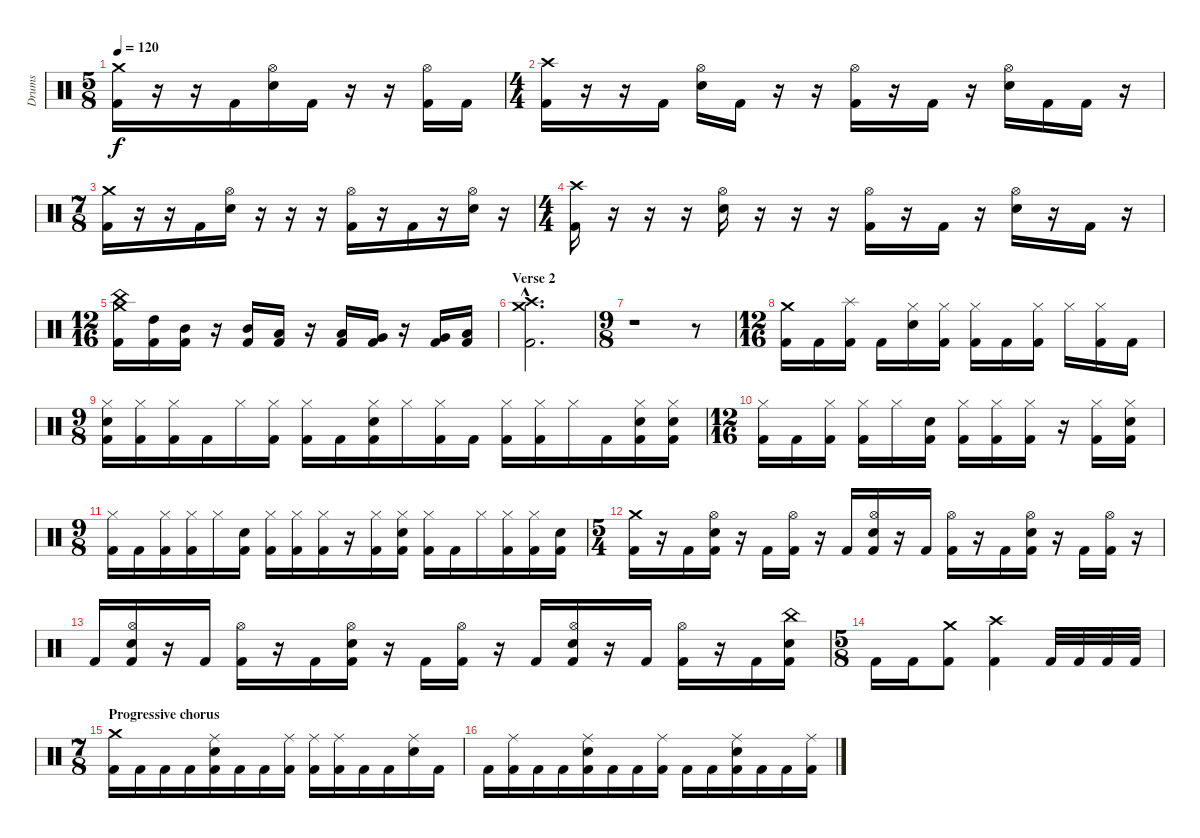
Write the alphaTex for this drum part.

\track ("Drums" "Drums") {instrument percussion}
\staff {score}
\articulation defaults
\ts (5 8)
\tempo 120
\clef neutral
\ks c
("Crash medium (hit)" "Kick (hit) 2").16{dy f} r.16 r.16 "Kick (hit) 2".16 ("Hi-Hat (open)" "Electric Snare (hit)").16 "Kick (hit) 2".16 r.16 r.16 ("Hi-Hat (open)" "Kick (hit) 2").16 "Kick (hit) 2".16 |
\ts (4 4)
("Crash high (hit)" "Kick (hit) 2").16 r.16 r.16 "Kick (hit) 2".16 ("Hi-Hat (open)" "Electric Snare (hit)").16 "Kick (hit) 2".16 r.16 r.16 ("Hi-Hat (open)" "Kick (hit) 2").16 r.16 "Kick (hit) 2".16 r.16 ("Hi-Hat (open)" "Electric Snare (hit)").16 "Kick (hit) 2".16 "Kick (hit) 2".16 r.16 |
\ts (7 8)
("Crash medium (hit)" "Kick (hit) 2").16 r.16 r.16 "Kick (hit) 2".16 ("Hi-Hat (open)" "Electric Snare (hit)").16 r.16 r.16 r.16 ("Hi-Hat (open)" "Kick (hit) 2").16 r.16 "Kick (hit) 2".16 r.16 ("Hi-Hat (open)" "Electric Snare (hit)").16 r.16 |
\ts (4 4)
("Crash high (hit)" "Kick (hit) 2").16 r.16 r.16 r.16 ("Hi-Hat (open)" "Electric Snare (hit)").16 r.16 r.16 r.16 ("Hi-Hat (open)" "Kick (hit) 2").16 r.16 "Kick (hit) 2".16 r.16 ("Hi-Hat (open)" "Electric Snare (hit)").16 r.16 "Kick (hit) 2".16 r.16 |
\ts (12 16)
("China (hit)" "Crash medium (hit)" "Kick (hit) 2").16 ("High Tom (hit)" "Kick (hit) 2").16 ("Mid Tom (hit)" "Kick (hit) 2").16 r.16 ("Mid Tom (hit)" "Kick (hit) 2").16 ("Low Tom (hit)" "Kick (hit) 2").16 r.16 ("Low Tom (hit)" "Kick (hit) 2").16 ("Very Low Tom (hit)" "Kick (hit) 2").16 r.16 ("Very Low Tom (hit)" "Kick (hit) 2").16 ("Low Floor Tom (hit)" "Kick (hit) 2").16 |
\section ("" "Verse 2")
("Crash high (hit)"{hac} "Crash medium (hit)"{hac} "Kick (hit) 2"{hac}).2{d} |
\ts (9 8)
r.1 r.8 |
\ts (12 16)
("Crash medium (hit)" "Kick (hit) 2").16 "Kick (hit) 2".16 ("Splash (hit)" "Kick (hit) 2").16 "Kick (hit) 2".16 ("Hi-Hat (closed)" "Electric Snare (hit)").16 ("Hi-Hat (closed)" "Kick (hit) 2").16 ("Hi-Hat (closed)" "Kick (hit) 2").16 "Kick (hit) 2".16 ("Hi-Hat (closed)" "Kick (hit) 2").16 "Hi-Hat (closed)".16 ("Hi-Hat (closed)" "Kick (hit) 2").16 "Kick (hit) 2".16 |
\ts (9 8)
("Hi-Hat (closed)" "Electric Snare (hit)" "Kick (hit) 2").16 ("Hi-Hat (closed)" "Kick (hit) 2").16 ("Hi-Hat (closed)" "Kick (hit) 2").16 "Kick (hit) 2".16 "Hi-Hat (closed)".16 ("Hi-Hat (closed)" "Kick (hit) 2").16 ("Hi-Hat (closed)" "Kick (hit) 2").16 "Kick (hit) 2".16 ("Hi-Hat (closed)" "Electric Snare (hit)" "Kick (hit) 2").16 "Hi-Hat (closed)".16 ("Hi-Hat (closed)" "Kick (hit) 2").16 "Kick (hit) 2".16 ("Hi-Hat (closed)" "Kick (hit) 2").16 ("Hi-Hat (closed)" "Kick (hit) 2").16 "Hi-Hat (closed)".16 "Kick (hit) 2".16 ("Hi-Hat (closed)" "Electric Snare (hit)" "Kick (hit) 2").16 ("Hi-Hat (closed)" "Electric Snare (hit)" "Kick (hit) 2").16 |
\ts (12 16)
("Hi-Hat (closed)" "Kick (hit) 2").16 "Kick (hit) 2".16 ("Hi-Hat (closed)" "Kick (hit) 2").16 ("Hi-Hat (closed)" "Kick (hit) 2").16 "Hi-Hat (closed)".16 ("Electric Snare (hit)" "Kick (hit) 2").16 ("Hi-Hat (closed)" "Kick (hit) 2").16 ("Hi-Hat (closed)" "Kick (hit) 2").16 ("Hi-Hat (closed)" "Kick (hit) 2").16 r.16 ("Hi-Hat (closed)" "Kick (hit) 2").16 ("Hi-Hat (closed)" "Electric Snare (hit)" "Kick (hit) 2").16 |
\ts (9 8)
("Hi-Hat (closed)" "Kick (hit) 2").16 "Kick (hit) 2".16 ("Hi-Hat (closed)" "Kick (hit) 2").16 ("Hi-Hat (closed)" "Kick (hit) 2").16 "Hi-Hat (closed)".16 ("Electric Snare (hit)" "Kick (hit) 2").16 ("Hi-Hat (closed)" "Kick (hit) 2").16 ("Hi-Hat (closed)" "Kick (hit) 2").16 ("Hi-Hat (closed)" "Kick (hit) 2").16 r.16 ("Hi-Hat (closed)" "Kick (hit) 2").16 ("Hi-Hat (closed)" "Electric Snare (hit)" "Kick (hit) 2").16 ("Hi-Hat (closed)" "Kick (hit) 2").16 "Kick (hit) 2".16 "Hi-Hat (closed)".16 ("Hi-Hat (closed)" "Kick (hit) 2").16 ("Hi-Hat (closed)" "Kick (hit) 2").16 ("Electric Snare (hit)" "Kick (hit) 2").16 |
\ts (5 4)
("Crash medium (hit)" "Kick (hit) 2").16 r.16 "Kick (hit) 2".16 ("Hi-Hat (open)" "Electric Snare (hit)" "Kick (hit) 2").16 r.16 "Kick (hit) 2".16 ("Hi-Hat (open)" "Kick (hit) 2").16 r.16 "Kick (hit) 2".16 ("Hi-Hat (open)" "Electric Snare (hit)" "Kick (hit) 2").16 r.16 "Kick (hit) 2".16 ("Hi-Hat (open)" "Kick (hit) 2").16 r.16 "Kick (hit) 2".16 ("Hi-Hat (open)" "Electric Snare (hit)" "Kick (hit) 2").16 r.16 "Kick (hit) 2".16 ("Hi-Hat (open)" "Kick (hit) 2").16 r.16 |
"Kick (hit) 2".16 ("Hi-Hat (open)" "Electric Snare (hit)" "Kick (hit) 2").16 r.16 "Kick (hit) 2".16 ("Hi-Hat (open)" "Kick (hit) 2").16 r.16 "Kick (hit) 2".16 ("Hi-Hat (open)" "Electric Snare (hit)" "Kick (hit) 2").16 r.16 "Kick (hit) 2".16 ("Hi-Hat (open)" "Kick (hit) 2").16 r.16 "Kick (hit) 2".16 ("Hi-Hat (open)" "Electric Snare (hit)" "Kick (hit) 2").16 r.16 "Kick (hit) 2".16 ("Hi-Hat (open)" "Kick (hit) 2").16 r.16 "Kick (hit) 2".16 ("China (hit)" "Electric Snare (hit)" "Kick (hit) 2").16 |
\ts (5 8)
"Kick (hit) 2".16 "Kick (hit) 2".16 ("Crash medium (hit)" "Kick (hit) 2").8 ("Crash high (hit)" "Kick (hit) 2").4 "Kick (hit) 2".32 "Kick (hit) 2".32 "Kick (hit) 2".32 "Kick (hit) 2".32 |
\ts (7 8)
\section ("" "Progressive chorus")
("Crash medium (hit)" "Kick (hit) 2").16 "Kick (hit) 2".16 "Kick (hit) 2".16 "Kick (hit) 2".16 ("Ride (middle)" "Electric Snare (hit)" "Kick (hit) 2").16 "Kick (hit) 2".16 "Kick (hit) 2".16 ("Ride (middle)" "Kick (hit) 2").16 ("Ride (middle)" "Kick (hit) 2").16 ("Ride (middle)" "Kick (hit) 2").16 "Kick (hit) 2".16 "Kick (hit) 2".16 ("Ride (middle)" "Electric Snare (hit)").16 "Kick (hit) 2".16 |
"Kick (hit) 2".16 ("Ride (middle)" "Kick (hit) 2").16 "Kick (hit) 2".16 "Kick (hit) 2".16 ("Ride (middle)" "Electric Snare (hit)" "Kick (hit) 2").16 "Kick (hit) 2".16 "Kick (hit) 2".16 ("Ride (middle)" "Kick (hit) 2").16 "Kick (hit) 2".16 "Kick (hit) 2".16 ("Ride (middle)" "Electric Snare (hit)" "Kick (hit) 2").16 "Kick (hit) 2".16 "Kick (hit) 2".16 ("Ride (middle)" "Kick (hit) 2").16
